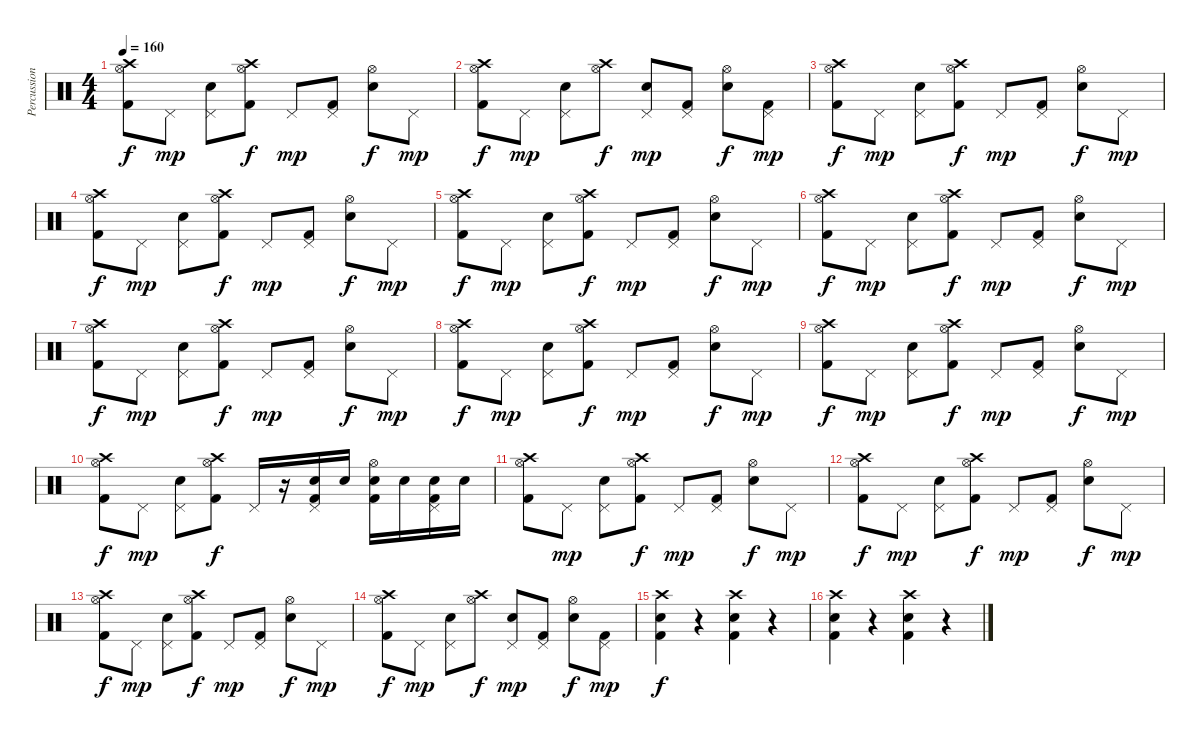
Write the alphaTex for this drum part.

\track ("Percussion" "Percussion") {instrument percussion}
\staff {score}
\articulation defaults
\ts (4 4)
\tempo 160
\clef neutral
\ks c
("Hi-Hat (open)" "Crash high (hit)" "Kick (hit) 2").8{dy f} "Pedal Hi-Hat (hit)".8{dy mp} ("Pedal Hi-Hat (hit)" "Snare (hit) 2").8 ("Hi-Hat (open)" "Crash high (hit)" "Kick (hit) 2").8{dy f} "Pedal Hi-Hat (hit)".8{dy mp} ("Pedal Hi-Hat (hit)" "Kick (hit) 2").8 ("Hi-Hat (open)" "Snare (hit) 2").8{dy f} "Pedal Hi-Hat (hit)".8{dy mp} |
("Hi-Hat (open)" "Crash high (hit)" "Kick (hit) 2").8{dy f} "Pedal Hi-Hat (hit)".8{dy mp} ("Pedal Hi-Hat (hit)" "Snare (hit) 2").8 ("Hi-Hat (open)" "Crash high (hit)").8{dy f} ("Pedal Hi-Hat (hit)" "Snare (hit) 2").8{dy mp} ("Pedal Hi-Hat (hit)" "Kick (hit) 2").8 ("Hi-Hat (open)" "Snare (hit) 2").8{dy f} ("Pedal Hi-Hat (hit)" "Kick (hit) 2").8{dy mp} |
("Hi-Hat (open)" "Crash high (hit)" "Kick (hit) 2").8{dy f} "Pedal Hi-Hat (hit)".8{dy mp} ("Pedal Hi-Hat (hit)" "Snare (hit) 2").8 ("Hi-Hat (open)" "Crash high (hit)" "Kick (hit) 2").8{dy f} "Pedal Hi-Hat (hit)".8{dy mp} ("Pedal Hi-Hat (hit)" "Kick (hit) 2").8 ("Hi-Hat (open)" "Snare (hit) 2").8{dy f} "Pedal Hi-Hat (hit)".8{dy mp} |
("Hi-Hat (open)" "Crash high (hit)" "Kick (hit) 2").8{dy f} "Pedal Hi-Hat (hit)".8{dy mp} ("Pedal Hi-Hat (hit)" "Snare (hit) 2").8 ("Hi-Hat (open)" "Crash high (hit)" "Kick (hit) 2").8{dy f} "Pedal Hi-Hat (hit)".8{dy mp} ("Pedal Hi-Hat (hit)" "Kick (hit) 2").8 ("Hi-Hat (open)" "Snare (hit) 2").8{dy f} "Pedal Hi-Hat (hit)".8{dy mp} |
("Hi-Hat (open)" "Crash high (hit)" "Kick (hit) 2").8{dy f} "Pedal Hi-Hat (hit)".8{dy mp} ("Pedal Hi-Hat (hit)" "Snare (hit) 2").8 ("Hi-Hat (open)" "Crash high (hit)" "Kick (hit) 2").8{dy f} "Pedal Hi-Hat (hit)".8{dy mp} ("Pedal Hi-Hat (hit)" "Kick (hit) 2").8 ("Hi-Hat (open)" "Snare (hit) 2").8{dy f} "Pedal Hi-Hat (hit)".8{dy mp} |
("Hi-Hat (open)" "Crash high (hit)" "Kick (hit) 2").8{dy f} "Pedal Hi-Hat (hit)".8{dy mp} ("Pedal Hi-Hat (hit)" "Snare (hit) 2").8 ("Hi-Hat (open)" "Crash high (hit)" "Kick (hit) 2").8{dy f} "Pedal Hi-Hat (hit)".8{dy mp} ("Pedal Hi-Hat (hit)" "Kick (hit) 2").8 ("Hi-Hat (open)" "Snare (hit) 2").8{dy f} "Pedal Hi-Hat (hit)".8{dy mp} |
("Hi-Hat (open)" "Crash high (hit)" "Kick (hit) 2").8{dy f} "Pedal Hi-Hat (hit)".8{dy mp} ("Pedal Hi-Hat (hit)" "Snare (hit) 2").8 ("Hi-Hat (open)" "Crash high (hit)" "Kick (hit) 2").8{dy f} "Pedal Hi-Hat (hit)".8{dy mp} ("Pedal Hi-Hat (hit)" "Kick (hit) 2").8 ("Hi-Hat (open)" "Snare (hit) 2").8{dy f} "Pedal Hi-Hat (hit)".8{dy mp} |
("Hi-Hat (open)" "Crash high (hit)" "Kick (hit) 2").8{dy f} "Pedal Hi-Hat (hit)".8{dy mp} ("Pedal Hi-Hat (hit)" "Snare (hit) 2").8 ("Hi-Hat (open)" "Crash high (hit)" "Kick (hit) 2").8{dy f} "Pedal Hi-Hat (hit)".8{dy mp} ("Pedal Hi-Hat (hit)" "Kick (hit) 2").8 ("Hi-Hat (open)" "Snare (hit) 2").8{dy f} "Pedal Hi-Hat (hit)".8{dy mp} |
("Hi-Hat (open)" "Crash high (hit)" "Kick (hit) 2").8{dy f} "Pedal Hi-Hat (hit)".8{dy mp} ("Pedal Hi-Hat (hit)" "Snare (hit) 2").8 ("Hi-Hat (open)" "Crash high (hit)" "Kick (hit) 2").8{dy f} "Pedal Hi-Hat (hit)".8{dy mp} ("Pedal Hi-Hat (hit)" "Kick (hit) 2").8 ("Hi-Hat (open)" "Snare (hit) 2").8{dy f} "Pedal Hi-Hat (hit)".8{dy mp} |
("Hi-Hat (open)" "Crash high (hit)" "Kick (hit) 2").8{dy f} "Pedal Hi-Hat (hit)".8{dy mp} ("Pedal Hi-Hat (hit)" "Snare (hit) 2").8 ("Hi-Hat (open)" "Crash high (hit)" "Kick (hit) 2").8{dy f} "Pedal Hi-Hat (hit)".16 r.16 ("Pedal Hi-Hat (hit)" "Snare (hit) 2" "Kick (hit) 2").16 "Snare (hit) 2".16 ("Hi-Hat (open)" "Snare (hit) 2" "Kick (hit) 2").16 "Snare (hit) 2".16 ("Pedal Hi-Hat (hit)" "Snare (hit) 2" "Kick (hit) 2").16 "Snare (hit) 2".16 |
("Hi-Hat (open)" "Crash high (hit)" "Kick (hit) 2").8 "Pedal Hi-Hat (hit)".8{dy mp} ("Pedal Hi-Hat (hit)" "Snare (hit) 2").8 ("Hi-Hat (open)" "Crash high (hit)" "Kick (hit) 2").8{dy f} "Pedal Hi-Hat (hit)".8{dy mp} ("Pedal Hi-Hat (hit)" "Kick (hit) 2").8 ("Hi-Hat (open)" "Snare (hit) 2").8{dy f} "Pedal Hi-Hat (hit)".8{dy mp} |
("Hi-Hat (open)" "Crash high (hit)" "Kick (hit) 2").8{dy f} "Pedal Hi-Hat (hit)".8{dy mp} ("Pedal Hi-Hat (hit)" "Snare (hit) 2").8 ("Hi-Hat (open)" "Crash high (hit)" "Kick (hit) 2").8{dy f} "Pedal Hi-Hat (hit)".8{dy mp} ("Pedal Hi-Hat (hit)" "Kick (hit) 2").8 ("Hi-Hat (open)" "Snare (hit) 2").8{dy f} "Pedal Hi-Hat (hit)".8{dy mp} |
("Hi-Hat (open)" "Crash high (hit)" "Kick (hit) 2").8{dy f} "Pedal Hi-Hat (hit)".8{dy mp} ("Pedal Hi-Hat (hit)" "Snare (hit) 2").8 ("Hi-Hat (open)" "Crash high (hit)" "Kick (hit) 2").8{dy f} "Pedal Hi-Hat (hit)".8{dy mp} ("Pedal Hi-Hat (hit)" "Kick (hit) 2").8 ("Hi-Hat (open)" "Snare (hit) 2").8{dy f} "Pedal Hi-Hat (hit)".8{dy mp} |
("Hi-Hat (open)" "Crash high (hit)" "Kick (hit) 2").8{dy f} "Pedal Hi-Hat (hit)".8{dy mp} ("Pedal Hi-Hat (hit)" "Snare (hit) 2").8 ("Hi-Hat (open)" "Crash high (hit)").8{dy f} ("Pedal Hi-Hat (hit)" "Snare (hit) 2").8{dy mp} ("Pedal Hi-Hat (hit)" "Kick (hit) 2").8 ("Hi-Hat (open)" "Snare (hit) 2").8{dy f} ("Pedal Hi-Hat (hit)" "Kick (hit) 2").8{dy mp} |
("Crash high (hit)" "Snare (hit) 2" "Kick (hit) 2").4{dy f} r.4 ("Crash high (hit)" "Snare (hit) 2" "Kick (hit) 2").4 r.4 |
("Crash high (hit)" "Snare (hit) 2" "Kick (hit) 2").4 r.4 ("Crash high (hit)" "Snare (hit) 2" "Kick (hit) 2").4 r.4
